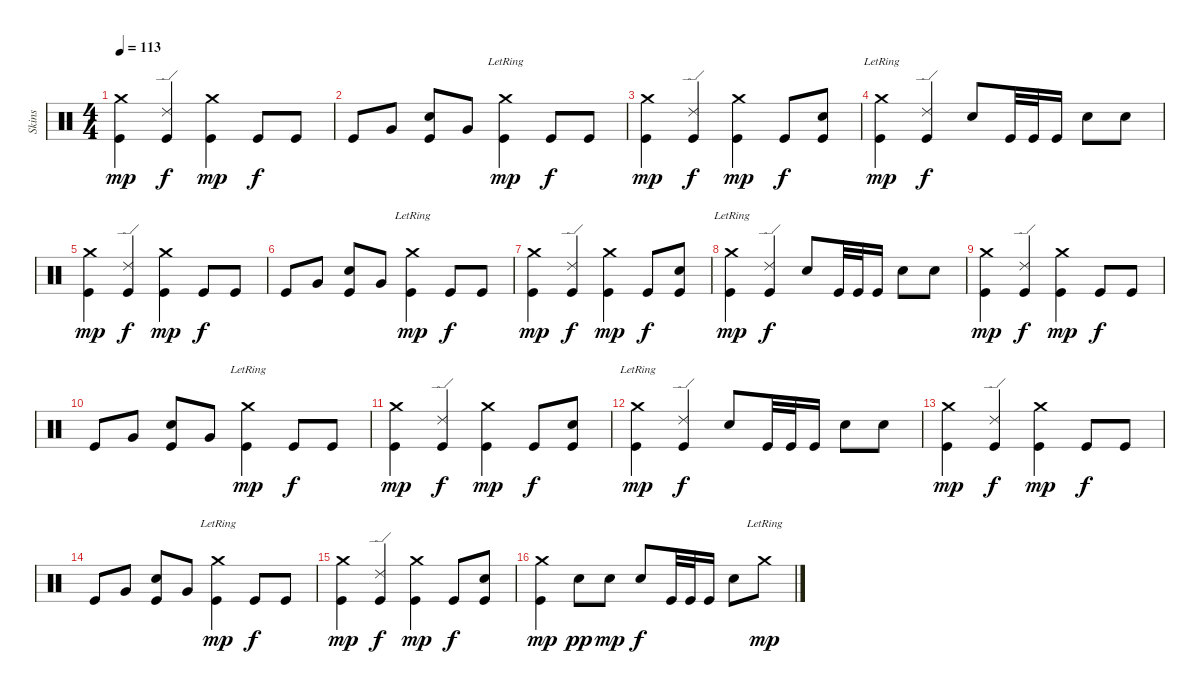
\track ("Skins" "Skins") {instrument percussion}
\staff {score}
\articulation defaults
\ts (4 4)
\tempo 113
\clef neutral
\ks c
("Crash medium (hit)" "Kick (hit)").4{dy mp} ("Ride (edge) 2" "Kick (hit)").4{dy f} ("Crash medium (hit)" "Kick (hit)").4{dy mp} "Kick (hit)".8{dy f} "Kick (hit)".8 |
"Kick (hit)".8 "Very Low Tom (hit)".8 ("Snare (hit) 2" "Kick (hit)").8 "Very Low Tom (hit)".8 ("Crash medium (hit)"{lr} "Kick (hit)").4{dy mp} "Kick (hit)".8{dy f} "Kick (hit)".8 |
("Crash medium (hit)" "Kick (hit)").4{dy mp} ("Ride (edge) 2" "Kick (hit)").4{dy f} ("Crash medium (hit)" "Kick (hit)").4{dy mp} "Kick (hit)".8{dy f} ("Snare (hit) 2" "Kick (hit)").8 |
("Crash medium (hit)"{lr} "Kick (hit)").4{dy mp} ("Ride (edge) 2" "Kick (hit)").4{dy f} "Electric Snare (hit)".8 "Kick (hit)".32 "Kick (hit)".32 "Kick (hit)".16 "Electric Snare (hit)".8 "Electric Snare (hit)".8 |
("Crash medium (hit)" "Kick (hit)").4{dy mp} ("Ride (edge) 2" "Kick (hit)").4{dy f} ("Crash medium (hit)" "Kick (hit)").4{dy mp} "Kick (hit)".8{dy f} "Kick (hit)".8 |
"Kick (hit)".8 "Very Low Tom (hit)".8 ("Snare (hit) 2" "Kick (hit)").8 "Very Low Tom (hit)".8 ("Crash medium (hit)"{lr} "Kick (hit)").4{dy mp} "Kick (hit)".8{dy f} "Kick (hit)".8 |
("Crash medium (hit)" "Kick (hit)").4{dy mp} ("Ride (edge) 2" "Kick (hit)").4{dy f} ("Crash medium (hit)" "Kick (hit)").4{dy mp} "Kick (hit)".8{dy f} ("Snare (hit) 2" "Kick (hit)").8 |
("Crash medium (hit)"{lr} "Kick (hit)").4{dy mp} ("Ride (edge) 2" "Kick (hit)").4{dy f} "Electric Snare (hit)".8 "Kick (hit)".32 "Kick (hit)".32 "Kick (hit)".16 "Electric Snare (hit)".8 "Electric Snare (hit)".8 |
("Crash medium (hit)" "Kick (hit)").4{dy mp} ("Ride (edge) 2" "Kick (hit)").4{dy f} ("Crash medium (hit)" "Kick (hit)").4{dy mp} "Kick (hit)".8{dy f} "Kick (hit)".8 |
"Kick (hit)".8 "Very Low Tom (hit)".8 ("Snare (hit) 2" "Kick (hit)").8 "Very Low Tom (hit)".8 ("Crash medium (hit)"{lr} "Kick (hit)").4{dy mp} "Kick (hit)".8{dy f} "Kick (hit)".8 |
("Crash medium (hit)" "Kick (hit)").4{dy mp} ("Ride (edge) 2" "Kick (hit)").4{dy f} ("Crash medium (hit)" "Kick (hit)").4{dy mp} "Kick (hit)".8{dy f} ("Snare (hit) 2" "Kick (hit)").8 |
("Crash medium (hit)"{lr} "Kick (hit)").4{dy mp} ("Ride (edge) 2" "Kick (hit)").4{dy f} "Electric Snare (hit)".8 "Kick (hit)".32 "Kick (hit)".32 "Kick (hit)".16 "Electric Snare (hit)".8 "Electric Snare (hit)".8 |
("Crash medium (hit)" "Kick (hit)").4{dy mp} ("Ride (edge) 2" "Kick (hit)").4{dy f} ("Crash medium (hit)" "Kick (hit)").4{dy mp} "Kick (hit)".8{dy f} "Kick (hit)".8 |
"Kick (hit)".8 "Very Low Tom (hit)".8 ("Snare (hit) 2" "Kick (hit)").8 "Very Low Tom (hit)".8 ("Crash medium (hit)"{lr} "Kick (hit)").4{dy mp} "Kick (hit)".8{dy f} "Kick (hit)".8 |
("Crash medium (hit)" "Kick (hit)").4{dy mp} ("Ride (edge) 2" "Kick (hit)").4{dy f} ("Crash medium (hit)" "Kick (hit)").4{dy mp} "Kick (hit)".8{dy f} ("Snare (hit) 2" "Kick (hit)").8 |
("Crash medium (hit)" "Kick (hit)").4{dy mp} "Electric Snare (hit)".8{dy pp} "Electric Snare (hit)".8{dy mp} "Electric Snare (hit)".8{dy f} "Kick (hit)".32 "Kick (hit)".32 "Kick (hit)".16 "Electric Snare (hit)".8 "Crash medium (hit)"{lr}.8{dy mp}
